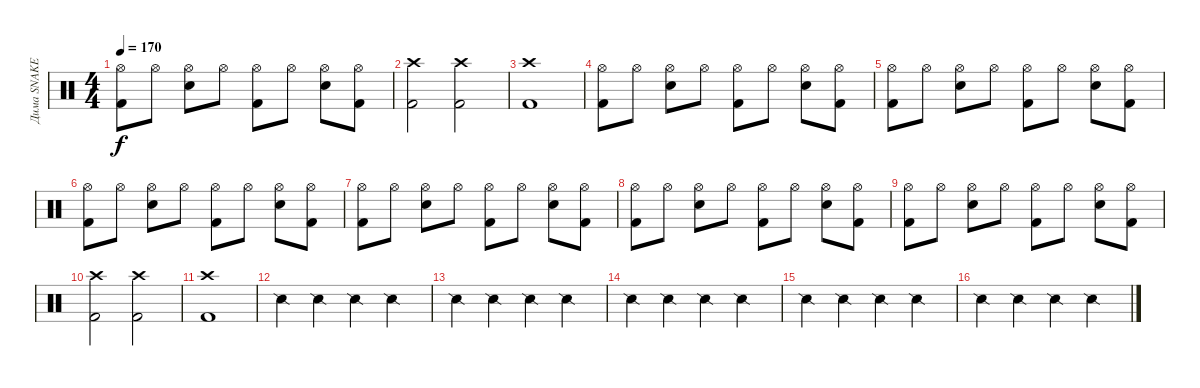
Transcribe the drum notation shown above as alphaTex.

\track ("Дима SNAKE" "Дима SNAKE") {instrument percussion}
\staff {score}
\articulation defaults
\ts (4 4)
\tempo 170
\clef neutral
\ks c
("Hi-Hat (open)" "Kick (hit) 2").8{dy f} "Hi-Hat (open)".8 ("Hi-Hat (open)" "Snare (hit) 2").8 "Hi-Hat (open)".8 ("Hi-Hat (open)" "Kick (hit) 2").8 "Hi-Hat (open)".8 ("Hi-Hat (open)" "Snare (hit) 2").8 ("Hi-Hat (open)" "Kick (hit) 2").8 |
("Crash high (hit)" "Kick (hit) 2").2 ("Crash high (hit)" "Kick (hit) 2").2 |
("Crash high (hit)" "Kick (hit) 2").1 |
("Hi-Hat (open)" "Kick (hit) 2").8 "Hi-Hat (open)".8 ("Hi-Hat (open)" "Snare (hit) 2").8 "Hi-Hat (open)".8 ("Hi-Hat (open)" "Kick (hit) 2").8 "Hi-Hat (open)".8 ("Hi-Hat (open)" "Snare (hit) 2").8 ("Hi-Hat (open)" "Kick (hit) 2").8 |
("Hi-Hat (open)" "Kick (hit) 2").8 "Hi-Hat (open)".8 ("Hi-Hat (open)" "Snare (hit) 2").8 "Hi-Hat (open)".8 ("Hi-Hat (open)" "Kick (hit) 2").8 "Hi-Hat (open)".8 ("Hi-Hat (open)" "Snare (hit) 2").8 ("Hi-Hat (open)" "Kick (hit) 2").8 |
("Hi-Hat (open)" "Kick (hit) 2").8 "Hi-Hat (open)".8 ("Hi-Hat (open)" "Snare (hit) 2").8 "Hi-Hat (open)".8 ("Hi-Hat (open)" "Kick (hit) 2").8 "Hi-Hat (open)".8 ("Hi-Hat (open)" "Snare (hit) 2").8 ("Hi-Hat (open)" "Kick (hit) 2").8 |
("Hi-Hat (open)" "Kick (hit) 2").8 "Hi-Hat (open)".8 ("Hi-Hat (open)" "Snare (hit) 2").8 "Hi-Hat (open)".8 ("Hi-Hat (open)" "Kick (hit) 2").8 "Hi-Hat (open)".8 ("Hi-Hat (open)" "Snare (hit) 2").8 ("Hi-Hat (open)" "Kick (hit) 2").8 |
("Hi-Hat (open)" "Kick (hit) 2").8 "Hi-Hat (open)".8 ("Hi-Hat (open)" "Snare (hit) 2").8 "Hi-Hat (open)".8 ("Hi-Hat (open)" "Kick (hit) 2").8 "Hi-Hat (open)".8 ("Hi-Hat (open)" "Snare (hit) 2").8 ("Hi-Hat (open)" "Kick (hit) 2").8 |
("Hi-Hat (open)" "Kick (hit) 2").8 "Hi-Hat (open)".8 ("Hi-Hat (open)" "Snare (hit) 2").8 "Hi-Hat (open)".8 ("Hi-Hat (open)" "Kick (hit) 2").8 "Hi-Hat (open)".8 ("Hi-Hat (open)" "Snare (hit) 2").8 ("Hi-Hat (open)" "Kick (hit) 2").8 |
("Crash high (hit)" "Kick (hit) 2").2 ("Crash high (hit)" "Kick (hit) 2").2 |
("Crash high (hit)" "Kick (hit) 2").1 |
"Snare (side stick) 2".4 "Snare (side stick) 2".4 "Snare (side stick) 2".4 "Snare (side stick) 2".4 |
"Snare (side stick) 2".4 "Snare (side stick) 2".4 "Snare (side stick) 2".4 "Snare (side stick) 2".4 |
"Snare (side stick) 2".4 "Snare (side stick) 2".4 "Snare (side stick) 2".4 "Snare (side stick) 2".4 |
"Snare (side stick) 2".4 "Snare (side stick) 2".4 "Snare (side stick) 2".4 "Snare (side stick) 2".4 |
"Snare (side stick) 2".4 "Snare (side stick) 2".4 "Snare (side stick) 2".4 "Snare (side stick) 2".4
